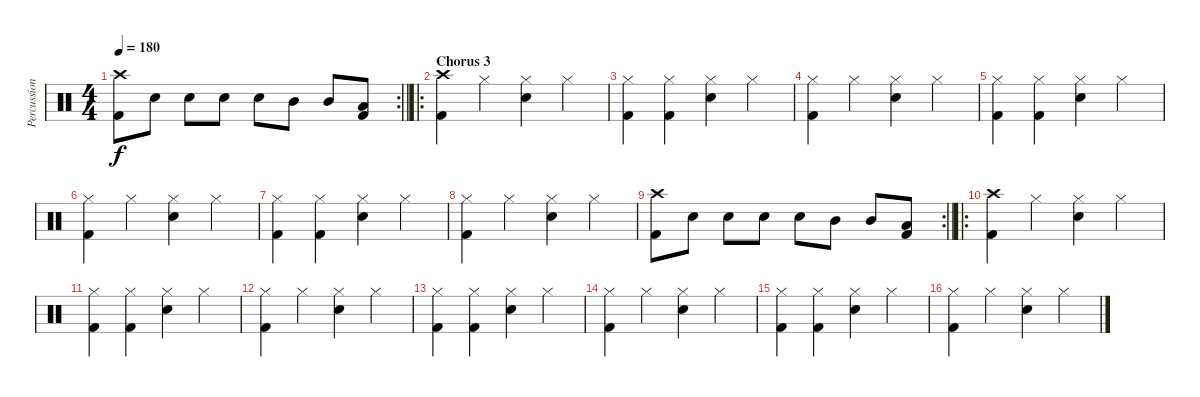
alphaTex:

\track ("Percussion" "Percussion") {instrument percussion}
\staff {score}
\articulation defaults
\rc 2
\ts (4 4)
\tempo 180
\clef neutral
\barLineRight lightlight
\ks c
("Crash high (hit)" "Kick (hit) 2").8{dy f} "Snare (hit) 2".8 "Snare (hit) 2".8 "Snare (hit) 2".8 "Snare (hit) 2".8 "Mid Tom (hit)".8 "Mid Tom (hit)".8 ("Kick (hit) 2" "Low Tom (hit)").8 |
\ro
\section ("" "Chorus 3")
("Crash high (hit)" "Kick (hit) 2").4 "Hi-Hat (closed)".4 ("Hi-Hat (closed)" "Snare (hit) 2").4 "Hi-Hat (closed)".4 |
("Hi-Hat (closed)" "Kick (hit) 2").4 ("Hi-Hat (closed)" "Kick (hit) 2").4 ("Hi-Hat (closed)" "Snare (hit) 2").4 "Hi-Hat (closed)".4 |
("Hi-Hat (closed)" "Kick (hit) 2").4 "Hi-Hat (closed)".4 ("Hi-Hat (closed)" "Snare (hit) 2").4 "Hi-Hat (closed)".4 |
("Hi-Hat (closed)" "Kick (hit) 2").4 ("Hi-Hat (closed)" "Kick (hit) 2").4 ("Hi-Hat (closed)" "Snare (hit) 2").4 "Hi-Hat (closed)".4 |
("Hi-Hat (closed)" "Kick (hit) 2").4 "Hi-Hat (closed)".4 ("Hi-Hat (closed)" "Snare (hit) 2").4 "Hi-Hat (closed)".4 |
("Hi-Hat (closed)" "Kick (hit) 2").4 ("Hi-Hat (closed)" "Kick (hit) 2").4 ("Hi-Hat (closed)" "Snare (hit) 2").4 "Hi-Hat (closed)".4 |
("Hi-Hat (closed)" "Kick (hit) 2").4 "Hi-Hat (closed)".4 ("Hi-Hat (closed)" "Snare (hit) 2").4 "Hi-Hat (closed)".4 |
\rc 2
\barLineRight lightlight
("Crash high (hit)" "Kick (hit) 2").8 "Snare (hit) 2".8 "Snare (hit) 2".8 "Snare (hit) 2".8 "Snare (hit) 2".8 "Mid Tom (hit)".8 "Mid Tom (hit)".8 ("Kick (hit) 2" "Low Tom (hit)").8 |
\ro
("Crash high (hit)" "Kick (hit) 2").4 "Hi-Hat (closed)".4 ("Hi-Hat (closed)" "Snare (hit) 2").4 "Hi-Hat (closed)".4 |
("Hi-Hat (closed)" "Kick (hit) 2").4 ("Hi-Hat (closed)" "Kick (hit) 2").4 ("Hi-Hat (closed)" "Snare (hit) 2").4 "Hi-Hat (closed)".4 |
("Hi-Hat (closed)" "Kick (hit) 2").4 "Hi-Hat (closed)".4 ("Hi-Hat (closed)" "Snare (hit) 2").4 "Hi-Hat (closed)".4 |
("Hi-Hat (closed)" "Kick (hit) 2").4 ("Hi-Hat (closed)" "Kick (hit) 2").4 ("Hi-Hat (closed)" "Snare (hit) 2").4 "Hi-Hat (closed)".4 |
("Hi-Hat (closed)" "Kick (hit) 2").4 "Hi-Hat (closed)".4 ("Hi-Hat (closed)" "Snare (hit) 2").4 "Hi-Hat (closed)".4 |
("Hi-Hat (closed)" "Kick (hit) 2").4 ("Hi-Hat (closed)" "Kick (hit) 2").4 ("Hi-Hat (closed)" "Snare (hit) 2").4 "Hi-Hat (closed)".4 |
("Hi-Hat (closed)" "Kick (hit) 2").4 "Hi-Hat (closed)".4 ("Hi-Hat (closed)" "Snare (hit) 2").4 "Hi-Hat (closed)".4
